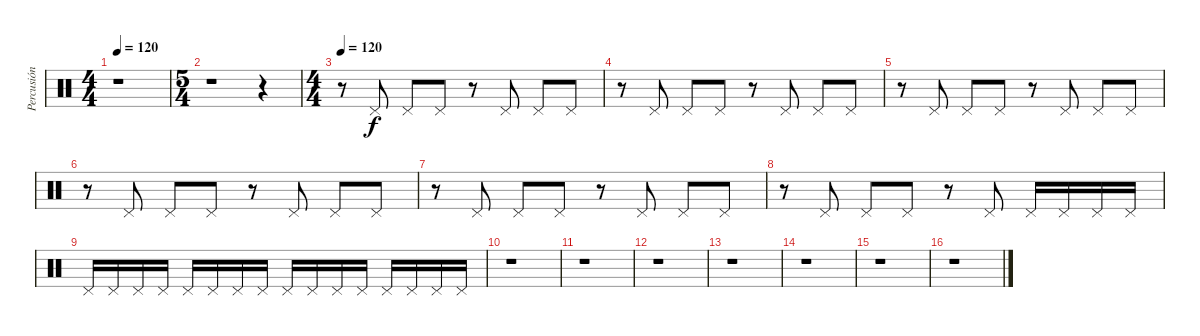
\track ("Percusión" "Percusión") {instrument percussion}
\staff {score}
\articulation defaults
\ts (4 4)
\tempo 120
\clef neutral
\ks c
r.1{dy f} |
\ts (5 4)
r.1 r.4 |
\ts (4 4)
\tempo 63
\tempo 120
r.8 "Pedal Hi-Hat (hit)".8 "Pedal Hi-Hat (hit)".8 "Pedal Hi-Hat (hit)".8 r.8 "Pedal Hi-Hat (hit)".8 "Pedal Hi-Hat (hit)".8 "Pedal Hi-Hat (hit)".8 |
r.8 "Pedal Hi-Hat (hit)".8 "Pedal Hi-Hat (hit)".8 "Pedal Hi-Hat (hit)".8 r.8 "Pedal Hi-Hat (hit)".8 "Pedal Hi-Hat (hit)".8 "Pedal Hi-Hat (hit)".8 |
r.8 "Pedal Hi-Hat (hit)".8 "Pedal Hi-Hat (hit)".8 "Pedal Hi-Hat (hit)".8 r.8 "Pedal Hi-Hat (hit)".8 "Pedal Hi-Hat (hit)".8 "Pedal Hi-Hat (hit)".8 |
r.8 "Pedal Hi-Hat (hit)".8 "Pedal Hi-Hat (hit)".8 "Pedal Hi-Hat (hit)".8 r.8 "Pedal Hi-Hat (hit)".8 "Pedal Hi-Hat (hit)".8 "Pedal Hi-Hat (hit)".8 |
r.8 "Pedal Hi-Hat (hit)".8 "Pedal Hi-Hat (hit)".8 "Pedal Hi-Hat (hit)".8 r.8 "Pedal Hi-Hat (hit)".8 "Pedal Hi-Hat (hit)".8 "Pedal Hi-Hat (hit)".8 |
r.8 "Pedal Hi-Hat (hit)".8 "Pedal Hi-Hat (hit)".8 "Pedal Hi-Hat (hit)".8 r.8 "Pedal Hi-Hat (hit)".8 "Pedal Hi-Hat (hit)".16 "Pedal Hi-Hat (hit)".16 "Pedal Hi-Hat (hit)".16 "Pedal Hi-Hat (hit)".16 |
"Pedal Hi-Hat (hit)".16 "Pedal Hi-Hat (hit)".16 "Pedal Hi-Hat (hit)".16 "Pedal Hi-Hat (hit)".16 "Pedal Hi-Hat (hit)".16 "Pedal Hi-Hat (hit)".16 "Pedal Hi-Hat (hit)".16 "Pedal Hi-Hat (hit)".16 "Pedal Hi-Hat (hit)".16 "Pedal Hi-Hat (hit)".16 "Pedal Hi-Hat (hit)".16 "Pedal Hi-Hat (hit)".16 "Pedal Hi-Hat (hit)".16 "Pedal Hi-Hat (hit)".16 "Pedal Hi-Hat (hit)".16 "Pedal Hi-Hat (hit)".16 |
r.1 |
r.1 |
r.1 |
r.1 |
r.1 |
r.1 |
r.1
